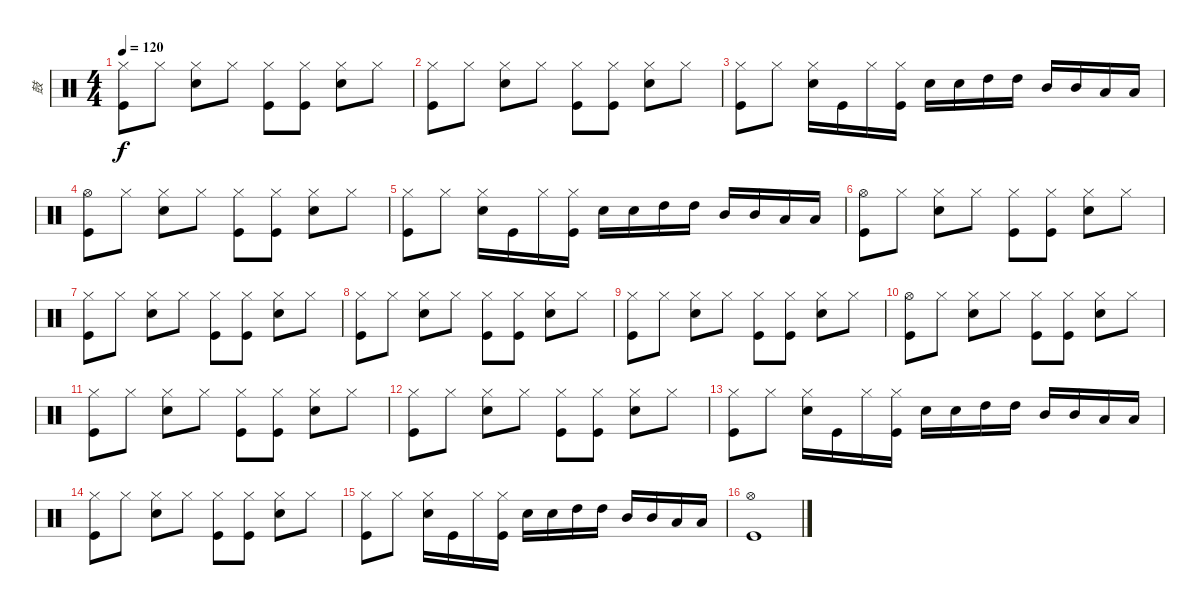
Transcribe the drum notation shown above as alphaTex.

\track ("鼓" "鼓") {instrument percussion}
\staff {score}
\articulation defaults
\ts (4 4)
\tempo 120
\clef neutral
\ks c
("Hi-Hat (closed)" "Kick (hit)").8{dy f} "Hi-Hat (closed)".8 ("Hi-Hat (closed)" "Snare (hit) 2").8 "Hi-Hat (closed)".8 ("Hi-Hat (closed)" "Kick (hit)").8 ("Hi-Hat (closed)" "Kick (hit)").8 ("Hi-Hat (closed)" "Snare (hit) 2").8 "Hi-Hat (closed)".8 |
("Hi-Hat (closed)" "Kick (hit)").8 "Hi-Hat (closed)".8 ("Hi-Hat (closed)" "Snare (hit) 2").8 "Hi-Hat (closed)".8 ("Hi-Hat (closed)" "Kick (hit)").8 ("Hi-Hat (closed)" "Kick (hit)").8 ("Hi-Hat (closed)" "Snare (hit) 2").8 "Hi-Hat (closed)".8 |
("Hi-Hat (closed)" "Kick (hit)").8 "Hi-Hat (closed)".8 ("Hi-Hat (closed)" "Snare (hit) 2").16 "Kick (hit)".16 "Hi-Hat (closed)".16 ("Hi-Hat (closed)" "Kick (hit)").16 "Snare (hit) 2".16 "Snare (hit) 2".16 "High Tom (hit)".16 "High Tom (hit)".16 "Mid Tom (hit)".16 "Mid Tom (hit)".16 "Low Tom (hit)".16 "Low Tom (hit)".16 |
("Hi-Hat (open)" "Kick (hit)").8 "Hi-Hat (closed)".8 ("Hi-Hat (closed)" "Snare (hit) 2").8 "Hi-Hat (closed)".8 ("Hi-Hat (closed)" "Kick (hit)").8 ("Hi-Hat (closed)" "Kick (hit)").8 ("Hi-Hat (closed)" "Snare (hit) 2").8 "Hi-Hat (closed)".8 |
("Hi-Hat (closed)" "Kick (hit)").8 "Hi-Hat (closed)".8 ("Hi-Hat (closed)" "Snare (hit) 2").16 "Kick (hit)".16 "Hi-Hat (closed)".16 ("Hi-Hat (closed)" "Kick (hit)").16 "Snare (hit) 2".16 "Snare (hit) 2".16 "High Tom (hit)".16 "High Tom (hit)".16 "Mid Tom (hit)".16 "Mid Tom (hit)".16 "Low Tom (hit)".16 "Low Tom (hit)".16 |
("Hi-Hat (open)" "Kick (hit)").8 "Hi-Hat (closed)".8 ("Hi-Hat (closed)" "Snare (hit) 2").8 "Hi-Hat (closed)".8 ("Hi-Hat (closed)" "Kick (hit)").8 ("Hi-Hat (closed)" "Kick (hit)").8 ("Hi-Hat (closed)" "Snare (hit) 2").8 "Hi-Hat (closed)".8 |
("Hi-Hat (closed)" "Kick (hit)").8 "Hi-Hat (closed)".8 ("Hi-Hat (closed)" "Snare (hit) 2").8 "Hi-Hat (closed)".8 ("Hi-Hat (closed)" "Kick (hit)").8 ("Hi-Hat (closed)" "Kick (hit)").8 ("Hi-Hat (closed)" "Snare (hit) 2").8 "Hi-Hat (closed)".8 |
("Hi-Hat (closed)" "Kick (hit)").8 "Hi-Hat (closed)".8 ("Hi-Hat (closed)" "Snare (hit) 2").8 "Hi-Hat (closed)".8 ("Hi-Hat (closed)" "Kick (hit)").8 ("Hi-Hat (closed)" "Kick (hit)").8 ("Hi-Hat (closed)" "Snare (hit) 2").8 "Hi-Hat (closed)".8 |
("Hi-Hat (closed)" "Kick (hit)").8 "Hi-Hat (closed)".8 ("Hi-Hat (closed)" "Snare (hit) 2").8 "Hi-Hat (closed)".8 ("Hi-Hat (closed)" "Kick (hit)").8 ("Hi-Hat (closed)" "Kick (hit)").8 ("Hi-Hat (closed)" "Snare (hit) 2").8 "Hi-Hat (closed)".8 |
("Hi-Hat (open)" "Kick (hit)").8 "Hi-Hat (closed)".8 ("Hi-Hat (closed)" "Snare (hit) 2").8 "Hi-Hat (closed)".8 ("Hi-Hat (closed)" "Kick (hit)").8 ("Hi-Hat (closed)" "Kick (hit)").8 ("Hi-Hat (closed)" "Snare (hit) 2").8 "Hi-Hat (closed)".8 |
("Hi-Hat (closed)" "Kick (hit)").8 "Hi-Hat (closed)".8 ("Hi-Hat (closed)" "Snare (hit) 2").8 "Hi-Hat (closed)".8 ("Hi-Hat (closed)" "Kick (hit)").8 ("Hi-Hat (closed)" "Kick (hit)").8 ("Hi-Hat (closed)" "Snare (hit) 2").8 "Hi-Hat (closed)".8 |
("Hi-Hat (closed)" "Kick (hit)").8 "Hi-Hat (closed)".8 ("Hi-Hat (closed)" "Snare (hit) 2").8 "Hi-Hat (closed)".8 ("Hi-Hat (closed)" "Kick (hit)").8 ("Hi-Hat (closed)" "Kick (hit)").8 ("Hi-Hat (closed)" "Snare (hit) 2").8 "Hi-Hat (closed)".8 |
("Hi-Hat (closed)" "Kick (hit)").8 "Hi-Hat (closed)".8 ("Hi-Hat (closed)" "Snare (hit) 2").16 "Kick (hit)".16 "Hi-Hat (closed)".16 ("Hi-Hat (closed)" "Kick (hit)").16 "Snare (hit) 2".16 "Snare (hit) 2".16 "High Tom (hit)".16 "High Tom (hit)".16 "Mid Tom (hit)".16 "Mid Tom (hit)".16 "Low Tom (hit)".16 "Low Tom (hit)".16 |
("Hi-Hat (closed)" "Kick (hit)").8 "Hi-Hat (closed)".8 ("Hi-Hat (closed)" "Snare (hit) 2").8 "Hi-Hat (closed)".8 ("Hi-Hat (closed)" "Kick (hit)").8 ("Hi-Hat (closed)" "Kick (hit)").8 ("Hi-Hat (closed)" "Snare (hit) 2").8 "Hi-Hat (closed)".8 |
("Hi-Hat (closed)" "Kick (hit)").8 "Hi-Hat (closed)".8 ("Hi-Hat (closed)" "Snare (hit) 2").16 "Kick (hit)".16 "Hi-Hat (closed)".16 ("Hi-Hat (closed)" "Kick (hit)").16 "Snare (hit) 2".16 "Snare (hit) 2".16 "High Tom (hit)".16 "High Tom (hit)".16 "Mid Tom (hit)".16 "Mid Tom (hit)".16 "Low Tom (hit)".16 "Low Tom (hit)".16 |
("Hi-Hat (open)" "Kick (hit)").1
